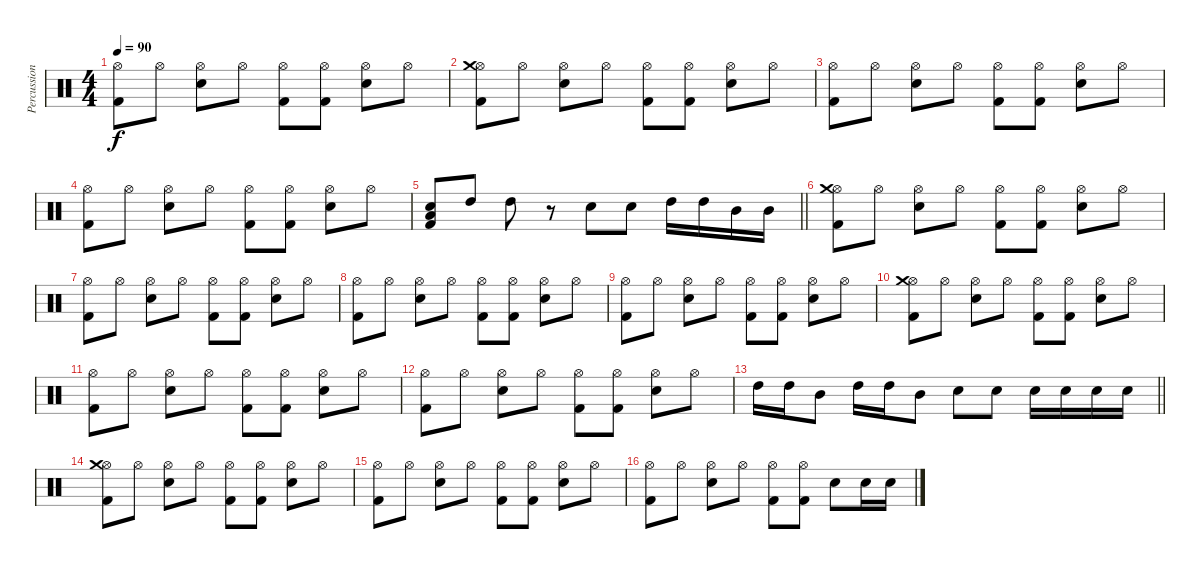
\track ("Percussion" "Percussion") {instrument percussion}
\staff {score}
\articulation defaults
\ts (4 4)
\tempo 90
\clef neutral
\ks c
("Hi-Hat (open)" "Kick (hit) 2").8{dy f} "Hi-Hat (open)".8 ("Hi-Hat (open)" "Electric Snare (hit)").8 "Hi-Hat (open)".8 ("Hi-Hat (open)" "Kick (hit) 2").8 ("Hi-Hat (open)" "Kick (hit) 2").8 ("Hi-Hat (open)" "Electric Snare (hit)").8 "Hi-Hat (open)".8 |
("Hi-Hat (open)" "Kick (hit) 2" "Crash medium (hit)").8 "Hi-Hat (open)".8 ("Hi-Hat (open)" "Electric Snare (hit)").8 "Hi-Hat (open)".8 ("Hi-Hat (open)" "Kick (hit) 2").8 ("Hi-Hat (open)" "Kick (hit) 2").8 ("Hi-Hat (open)" "Electric Snare (hit)").8 "Hi-Hat (open)".8 |
("Hi-Hat (open)" "Kick (hit) 2").8 "Hi-Hat (open)".8 ("Hi-Hat (open)" "Electric Snare (hit)").8 "Hi-Hat (open)".8 ("Hi-Hat (open)" "Kick (hit) 2").8 ("Hi-Hat (open)" "Kick (hit) 2").8 ("Hi-Hat (open)" "Electric Snare (hit)").8 "Hi-Hat (open)".8 |
("Hi-Hat (open)" "Kick (hit) 2").8 "Hi-Hat (open)".8 ("Hi-Hat (open)" "Electric Snare (hit)").8 "Hi-Hat (open)".8 ("Hi-Hat (open)" "Kick (hit) 2").8 ("Hi-Hat (open)" "Kick (hit) 2").8 ("Hi-Hat (open)" "Electric Snare (hit)").8 "Hi-Hat (open)".8 |
\barLineRight lightlight
("Electric Snare (hit)" "Low Floor Tom (hit)" "Kick (hit) 2").8 "High Tom (hit)".8 "High Tom (hit)".8 r.8 "Electric Snare (hit)".8 "Electric Snare (hit)".8 "High Tom (hit)".16 "High Tom (hit)".16 "Mid Tom (hit)".16 "Mid Tom (hit)".16 |
("Hi-Hat (open)" "Kick (hit) 2" "Crash medium (hit)").8 "Hi-Hat (open)".8 ("Hi-Hat (open)" "Electric Snare (hit)").8 "Hi-Hat (open)".8 ("Hi-Hat (open)" "Kick (hit) 2").8 ("Hi-Hat (open)" "Kick (hit) 2").8 ("Hi-Hat (open)" "Electric Snare (hit)").8 "Hi-Hat (open)".8 |
("Hi-Hat (open)" "Kick (hit) 2").8 "Hi-Hat (open)".8 ("Hi-Hat (open)" "Electric Snare (hit)").8 "Hi-Hat (open)".8 ("Hi-Hat (open)" "Kick (hit) 2").8 ("Hi-Hat (open)" "Kick (hit) 2").8 ("Hi-Hat (open)" "Electric Snare (hit)").8 "Hi-Hat (open)".8 |
("Hi-Hat (open)" "Kick (hit) 2").8 "Hi-Hat (open)".8 ("Hi-Hat (open)" "Electric Snare (hit)").8 "Hi-Hat (open)".8 ("Hi-Hat (open)" "Kick (hit) 2").8 ("Hi-Hat (open)" "Kick (hit) 2").8 ("Hi-Hat (open)" "Electric Snare (hit)").8 "Hi-Hat (open)".8 |
("Hi-Hat (open)" "Kick (hit) 2").8 "Hi-Hat (open)".8 ("Hi-Hat (open)" "Electric Snare (hit)").8 "Hi-Hat (open)".8 ("Hi-Hat (open)" "Kick (hit) 2").8 ("Hi-Hat (open)" "Kick (hit) 2").8 ("Hi-Hat (open)" "Electric Snare (hit)").8 "Hi-Hat (open)".8 |
("Hi-Hat (open)" "Kick (hit) 2" "Crash medium (hit)").8 "Hi-Hat (open)".8 ("Hi-Hat (open)" "Electric Snare (hit)").8 "Hi-Hat (open)".8 ("Hi-Hat (open)" "Kick (hit) 2").8 ("Hi-Hat (open)" "Kick (hit) 2").8 ("Hi-Hat (open)" "Electric Snare (hit)").8 "Hi-Hat (open)".8 |
("Hi-Hat (open)" "Kick (hit) 2").8 "Hi-Hat (open)".8 ("Hi-Hat (open)" "Electric Snare (hit)").8 "Hi-Hat (open)".8 ("Hi-Hat (open)" "Kick (hit) 2").8 ("Hi-Hat (open)" "Kick (hit) 2").8 ("Hi-Hat (open)" "Electric Snare (hit)").8 "Hi-Hat (open)".8 |
("Hi-Hat (open)" "Kick (hit) 2").8 "Hi-Hat (open)".8 ("Hi-Hat (open)" "Electric Snare (hit)").8 "Hi-Hat (open)".8 ("Hi-Hat (open)" "Kick (hit) 2").8 ("Hi-Hat (open)" "Kick (hit) 2").8 ("Hi-Hat (open)" "Electric Snare (hit)").8 "Hi-Hat (open)".8 |
\barLineRight lightlight "High Tom (hit)".16 "High Tom (hit)".16 "Mid Tom (hit)".8 "High Tom (hit)".16 "High Tom (hit)".16 "Mid Tom (hit)".8 "Electric Snare (hit)".8 "Electric Snare (hit)".8 "Electric Snare (hit)".16 "Electric Snare (hit)".16 "Electric Snare (hit)".16 "Electric Snare (hit)".16
|
("Hi-Hat (open)" "Kick (hit) 2" "Crash medium (hit)").8 "Hi-Hat (open)".8 ("Hi-Hat (open)" "Electric Snare (hit)").8 "Hi-Hat (open)".8 ("Hi-Hat (open)" "Kick (hit) 2").8 ("Hi-Hat (open)" "Kick (hit) 2").8 ("Hi-Hat (open)" "Electric Snare (hit)").8 "Hi-Hat (open)".8 |
("Hi-Hat (open)" "Kick (hit) 2").8 "Hi-Hat (open)".8 ("Hi-Hat (open)" "Electric Snare (hit)").8 "Hi-Hat (open)".8 ("Hi-Hat (open)" "Kick (hit) 2").8 ("Hi-Hat (open)" "Kick (hit) 2").8 ("Hi-Hat (open)" "Electric Snare (hit)").8 "Hi-Hat (open)".8 |
("Hi-Hat (open)" "Kick (hit) 2").8 "Hi-Hat (open)".8 ("Hi-Hat (open)" "Electric Snare (hit)").8 "Hi-Hat (open)".8 ("Hi-Hat (open)" "Kick (hit) 2").8 ("Kick (hit) 2" "Hi-Hat (open)").8 "Electric Snare (hit)".8 "Electric Snare (hit)".16 "Electric Snare (hit)".16
